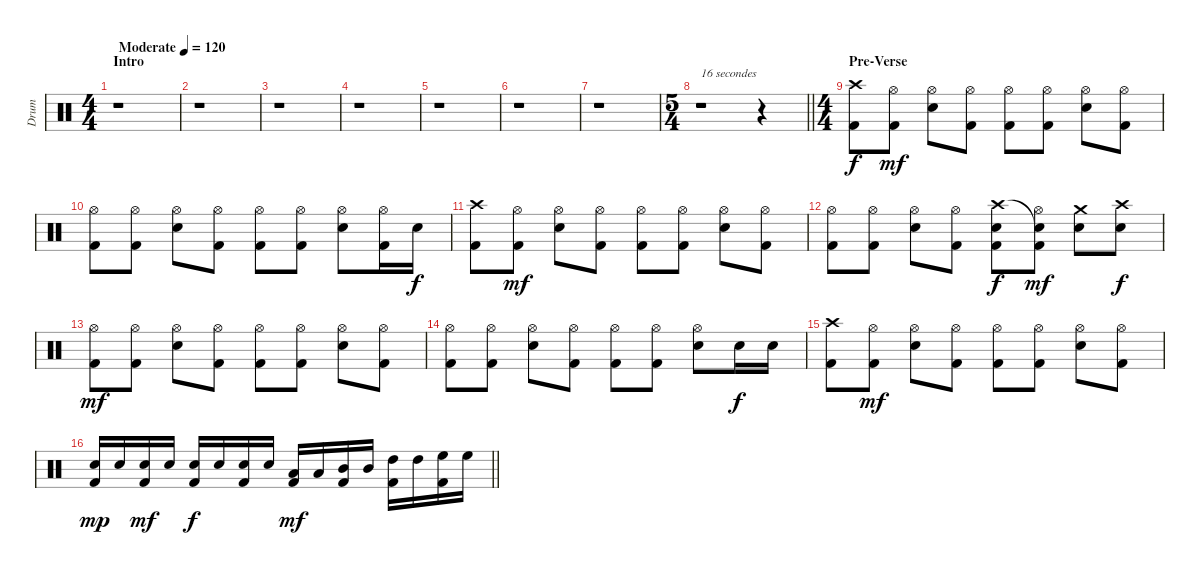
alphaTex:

\track ("Drum" "Drum") {instrument percussion}
\staff {score}
\articulation defaults
\ts (4 4)
\section ("" "Intro")
\tempo (120 "Moderate")
\clef neutral
\ks c
r.1{dy f} |
r.1 |
r.1 |
r.1 |
r.1 |
r.1 |
r.1 |
\ts (5 4)
\barLineRight lightlight
r.1{txt "16 secondes"} r.4 |
\ts (4 4)
\section ("" "Pre-Verse")
("Crash high (hit)" "Kick (hit) 2").8 ("Hi-Hat (open)" "Kick (hit) 2").8{dy mf} ("Hi-Hat (open)" "Snare (hit) 2").8 ("Hi-Hat (open)" "Kick (hit) 2").8 ("Hi-Hat (open)" "Kick (hit) 2").8 ("Hi-Hat (open)" "Kick (hit) 2").8 ("Hi-Hat (open)" "Snare (hit) 2").8 ("Hi-Hat (open)" "Kick (hit) 2").8 |
("Hi-Hat (open)" "Kick (hit) 2").8 ("Hi-Hat (open)" "Kick (hit) 2").8 ("Hi-Hat (open)" "Snare (hit) 2").8 ("Hi-Hat (open)" "Kick (hit) 2").8 ("Hi-Hat (open)" "Kick (hit) 2").8 ("Hi-Hat (open)" "Kick (hit) 2").8 ("Hi-Hat (open)" "Snare (hit) 2").8 ("Hi-Hat (open)" "Kick (hit) 2").16 "Snare (hit) 2".16{dy f} |
("Crash high (hit)" "Kick (hit) 2").8 ("Hi-Hat (open)" "Kick (hit) 2").8{dy mf} ("Hi-Hat (open)" "Snare (hit) 2").8 ("Hi-Hat (open)" "Kick (hit) 2").8 ("Hi-Hat (open)" "Kick (hit) 2").8 ("Hi-Hat (open)" "Kick (hit) 2").8 ("Hi-Hat (open)" "Snare (hit) 2").8 ("Hi-Hat (open)" "Kick (hit) 2").8 |
("Hi-Hat (open)" "Kick (hit) 2").8 ("Hi-Hat (open)" "Kick (hit) 2").8 ("Hi-Hat (open)" "Snare (hit) 2").8 ("Hi-Hat (open)" "Kick (hit) 2").8 ("Crash high (hit)" "Snare (hit) 2" "Kick (hit) 2").8{dy f} ("Snare (hit)"{t} "Hi-Hat (open)" "Kick (hit) 2").8{dy mf} ("Crash medium (hit)" "Snare (hit) 2").8 ("Crash high (hit)" "Snare (hit) 2").8{dy f} |
("Hi-Hat (open)" "Kick (hit) 2").8{dy mf} ("Hi-Hat (open)" "Kick (hit) 2").8 ("Hi-Hat (open)" "Snare (hit) 2").8 ("Hi-Hat (open)" "Kick (hit) 2").8 ("Hi-Hat (open)" "Kick (hit) 2").8 ("Hi-Hat (open)" "Kick (hit) 2").8 ("Hi-Hat (open)" "Snare (hit) 2").8 ("Hi-Hat (open)" "Kick (hit) 2").8 |
("Hi-Hat (open)" "Kick (hit) 2").8 ("Hi-Hat (open)" "Kick (hit) 2").8 ("Hi-Hat (open)" "Snare (hit) 2").8 ("Hi-Hat (open)" "Kick (hit) 2").8 ("Hi-Hat (open)" "Kick (hit) 2").8 ("Hi-Hat (open)" "Kick (hit) 2").8 ("Hi-Hat (open)" "Snare (hit) 2").8 "Snare (hit) 2".16{dy f} "Snare (hit) 2".16 |
("Crash high (hit)" "Kick (hit) 2").8 ("Hi-Hat (open)" "Kick (hit) 2").8{dy mf} ("Hi-Hat (open)" "Snare (hit) 2").8 ("Hi-Hat (open)" "Kick (hit) 2").8 ("Hi-Hat (open)" "Kick (hit) 2").8 ("Hi-Hat (open)" "Kick (hit) 2").8 ("Hi-Hat (open)" "Snare (hit) 2").8 ("Hi-Hat (open)" "Kick (hit) 2").8 |
\barLineRight lightlight
("Snare (hit) 2" "Kick (hit) 2").16{dy mp} "Snare (hit) 2".16 ("Snare (hit) 2" "Kick (hit) 2").16{dy mf} "Snare (hit) 2".16 ("Snare (hit) 2" "Kick (hit) 2").16{dy f} "Snare (hit) 2".16 ("Snare (hit) 2" "Kick (hit) 2").16 "Snare (hit) 2".16 ("Low Tom (hit)" "Kick (hit) 2").16{dy mf} "Low Tom (hit)".16 ("Mid Tom (hit)" "Kick (hit) 2").16 "Mid Tom (hit)".16 ("High Tom (hit)" "Kick (hit) 2").16 "High Tom (hit)".16 ("High Floor Tom (hit)" "Kick (hit) 2").16 "High Floor Tom (hit)".16
